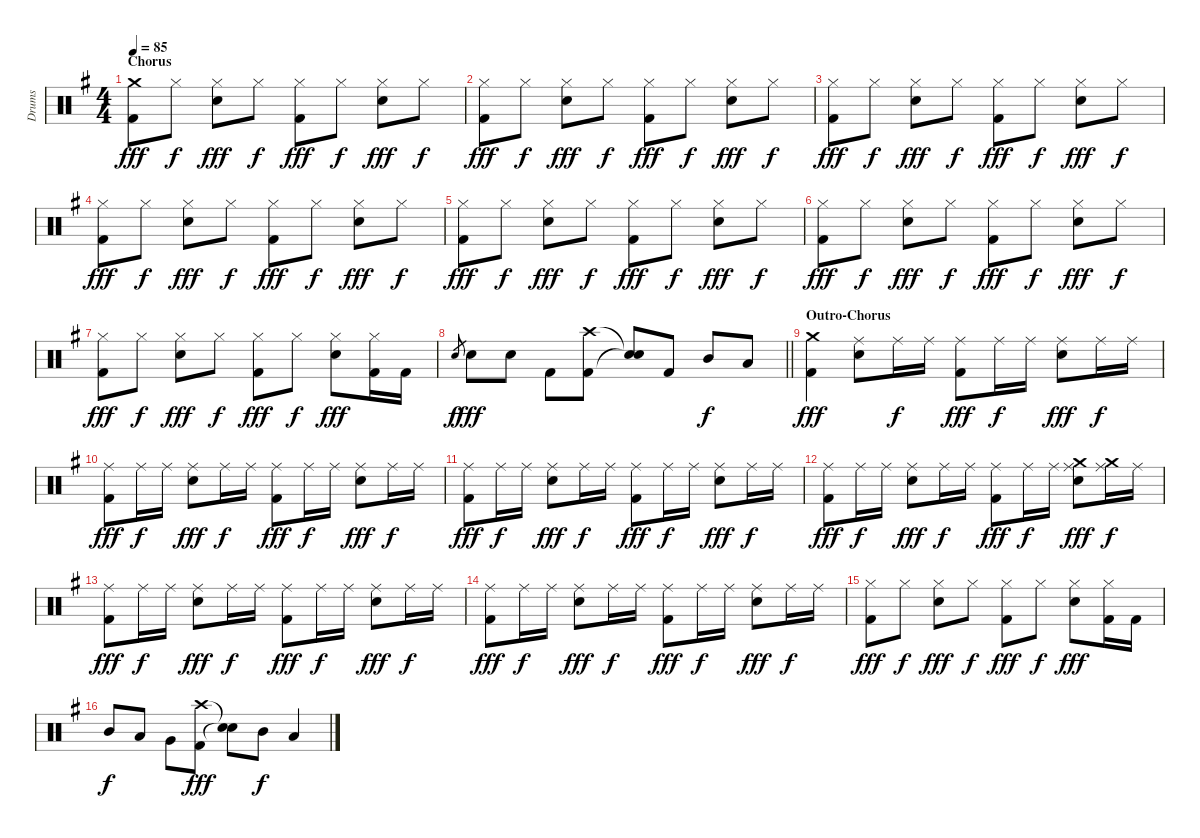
\track ("Drums" "Drums") {instrument percussion}
\staff {score}
\articulation defaults
\ts (4 4)
\section ("" "Chorus")
\tempo 85
\clef neutral
\ks g
("Crash medium (hit)" "Kick (hit) 2").8{dy fff} "Hi-Hat (closed)".8{dy f} ("Hi-Hat (closed)" "Snare (hit) 2").8{dy fff} "Hi-Hat (closed)".8{dy f} ("Hi-Hat (closed)" "Kick (hit) 2").8{dy fff} "Hi-Hat (closed)".8{dy f} ("Hi-Hat (closed)" "Snare (hit) 2").8{dy fff} "Hi-Hat (closed)".8{dy f} |
("Hi-Hat (closed)" "Kick (hit) 2").8{dy fff} "Hi-Hat (closed)".8{dy f} ("Hi-Hat (closed)" "Snare (hit) 2").8{dy fff} "Hi-Hat (closed)".8{dy f} ("Hi-Hat (closed)" "Kick (hit) 2").8{dy fff} "Hi-Hat (closed)".8{dy f} ("Hi-Hat (closed)" "Snare (hit) 2").8{dy fff} "Hi-Hat (closed)".8{dy f} |
("Hi-Hat (closed)" "Kick (hit) 2").8{dy fff} "Hi-Hat (closed)".8{dy f} ("Hi-Hat (closed)" "Snare (hit) 2").8{dy fff} "Hi-Hat (closed)".8{dy f} ("Hi-Hat (closed)" "Kick (hit) 2").8{dy fff} "Hi-Hat (closed)".8{dy f} ("Hi-Hat (closed)" "Snare (hit) 2").8{dy fff} "Hi-Hat (closed)".8{dy f} |
("Hi-Hat (closed)" "Kick (hit) 2").8{dy fff} "Hi-Hat (closed)".8{dy f} ("Hi-Hat (closed)" "Snare (hit) 2").8{dy fff} "Hi-Hat (closed)".8{dy f} ("Hi-Hat (closed)" "Kick (hit) 2").8{dy fff} "Hi-Hat (closed)".8{dy f} ("Hi-Hat (closed)" "Snare (hit) 2").8{dy fff} "Hi-Hat (closed)".8{dy f} |
("Hi-Hat (closed)" "Kick (hit) 2").8{dy fff} "Hi-Hat (closed)".8{dy f} ("Hi-Hat (closed)" "Snare (hit) 2").8{dy fff} "Hi-Hat (closed)".8{dy f} ("Hi-Hat (closed)" "Kick (hit) 2").8{dy fff} "Hi-Hat (closed)".8{dy f} ("Hi-Hat (closed)" "Snare (hit) 2").8{dy fff} "Hi-Hat (closed)".8{dy f} |
("Hi-Hat (closed)" "Kick (hit) 2").8{dy fff} "Hi-Hat (closed)".8{dy f} ("Hi-Hat (closed)" "Snare (hit) 2").8{dy fff} "Hi-Hat (closed)".8{dy f} ("Hi-Hat (closed)" "Kick (hit) 2").8{dy fff} "Hi-Hat (closed)".8{dy f} ("Hi-Hat (closed)" "Snare (hit) 2").8{dy fff} "Hi-Hat (closed)".8{dy f} |
("Hi-Hat (closed)" "Kick (hit) 2").8{dy fff} "Hi-Hat (closed)".8{dy f} ("Hi-Hat (closed)" "Snare (hit) 2").8{dy fff} "Hi-Hat (closed)".8{dy f} ("Hi-Hat (closed)" "Kick (hit) 2").8{dy fff} "Hi-Hat (closed)".8{dy f} ("Hi-Hat (closed)" "Snare (hit) 2").8{dy fff} ("Hi-Hat (closed)" "Kick (hit) 2").16 "Kick (hit) 2".16 |
\barLineRight lightlight "Snare (hit) 2".8{gr dy f} "Snare (hit) 2".8{dy fff} "Snare (hit) 2".8 "Kick (hit) 2".8
("Crash high (hit)" "Kick (hit) 2").8 ("Snare (hit)"{t} "Snare (hit)"{t}).8 "Kick (hit) 2".8 "Mid Tom (hit)".8{dy f} "Low Tom (hit)".8 |
\section ("" "Outro-Chorus")
("Crash medium (hit)" "Kick (hit) 2").4{dy fff volume 9} ("Ride (middle)" "Snare (hit) 2").8 "Ride (middle)".16{dy f} "Ride (middle)".16 ("Ride (middle)" "Kick (hit) 2").8{dy fff} "Ride (middle)".16{dy f} "Ride (middle)".16 ("Ride (middle)" "Snare (hit) 2").8{dy fff} "Ride (middle)".16{dy f} "Ride (middle)".16 |
("Ride (middle)" "Kick (hit) 2").8{dy fff} "Ride (middle)".16{dy f} "Ride (middle)".16 ("Ride (middle)" "Snare (hit) 2").8{dy fff} "Ride (middle)".16{dy f} "Ride (middle)".16 ("Ride (middle)" "Kick (hit) 2").8{dy fff} "Ride (middle)".16{dy f} "Ride (middle)".16 ("Ride (middle)" "Snare (hit) 2").8{dy fff} "Ride (middle)".16{dy f} "Ride (middle)".16 |
("Ride (middle)" "Kick (hit) 2").8{dy fff} "Ride (middle)".16{dy f} "Ride (middle)".16 ("Ride (middle)" "Snare (hit) 2").8{dy fff} "Ride (middle)".16{dy f} "Ride (middle)".16 ("Ride (middle)" "Kick (hit) 2").8{dy fff} "Ride (middle)".16{dy f} "Ride (middle)".16 ("Ride (middle)" "Snare (hit) 2").8{dy fff} "Ride (middle)".16{dy f} "Ride (middle)".16 |
("Ride (middle)" "Kick (hit) 2").8{dy fff} "Ride (middle)".16{dy f} "Ride (middle)".16 ("Ride (middle)" "Snare (hit) 2").8{dy fff} "Ride (middle)".16{dy f} "Ride (middle)".16 ("Ride (middle)" "Kick (hit) 2").8{dy fff} "Ride (middle)".16{dy f} "Ride (middle)".16 ("Ride (middle)" "Crash medium (hit)" "Snare (hit) 2").8{dy fff} ("Ride (middle)" "Crash medium (hit)").16{dy f} "Ride (middle)".16 |
("Ride (middle)" "Kick (hit) 2").8{dy fff volume 0} "Ride (middle)".16{dy f} "Ride (middle)".16 ("Ride (middle)" "Snare (hit) 2").8{dy fff} "Ride (middle)".16{dy f} "Ride (middle)".16 ("Ride (middle)" "Kick (hit) 2").8{dy fff} "Ride (middle)".16{dy f} "Ride (middle)".16 ("Ride (middle)" "Snare (hit) 2").8{dy fff} "Ride (middle)".16{dy f} "Ride (middle)".16 |
("Ride (middle)" "Kick (hit) 2").8{dy fff} "Ride (middle)".16{dy f} "Ride (middle)".16 ("Ride (middle)" "Snare (hit) 2").8{dy fff} "Ride (middle)".16{dy f} "Ride (middle)".16 ("Ride (middle)" "Kick (hit) 2").8{dy fff} "Ride (middle)".16{dy f} "Ride (middle)".16 ("Ride (middle)" "Snare (hit) 2").8{dy fff} "Ride (middle)".16{dy f} "Ride (middle)".16 |
("Hi-Hat (closed)" "Kick (hit) 2").8{dy fff} "Hi-Hat (closed)".8{dy f} ("Hi-Hat (closed)" "Snare (hit) 2").8{dy fff} "Hi-Hat (closed)".8{dy f} ("Hi-Hat (closed)" "Kick (hit) 2").8{dy fff} "Hi-Hat (closed)".8{dy f} ("Hi-Hat (closed)" "Snare (hit) 2").8{dy fff} ("Hi-Hat (closed)" "Kick (hit) 2").16 "Kick (hit) 2".16 |
"Mid Tom (hit)".8{dy f} "Low Tom (hit)".8 "Very Low Tom (hit)".8 ("Crash high (hit)" "Kick (hit) 2").8{dy fff} ("Snare (hit)"{t} "Snare (hit)"{t}).8 "Mid Tom (hit)".8{dy f} "Low Tom (hit)".4
